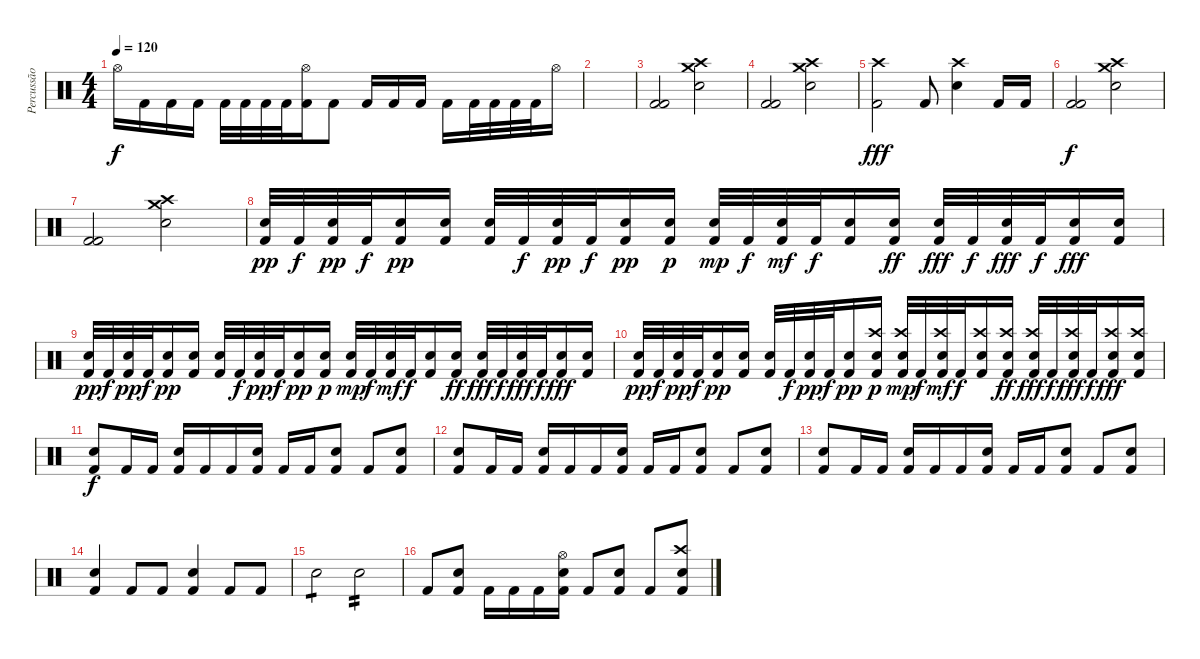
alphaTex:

\track ("Percussão" "Percussão") {instrument percussion}
\staff {score}
\articulation defaults
\ts (4 4)
\tempo 120
\clef neutral
\ks c "Hi-Hat (open)".16{dy f} "Kick (hit) 2".16 "Kick (hit) 2".16 "Kick (hit) 2".16 "Kick (hit) 2".32 "Kick (hit) 2".32 "Kick (hit) 2".32 "Kick (hit) 2".32
("Kick (hit) 2" "Hi-Hat (open)").16 "Kick (hit) 2".8 "Kick (hit) 2".16 "Kick (hit) 2".16 "Kick (hit) 2".16 "Kick (hit) 2".16 "Kick (hit) 2".32 "Kick (hit) 2".32 "Kick (hit) 2".32 "Kick (hit) 2".32 "Hi-Hat (open)".16 |
|
("Kick (hit) 2" "Kick (hit) 2").2 ("Crash medium (hit)" "Crash high (hit)" "Snare (hit) 2").2 |
("Kick (hit) 2" "Kick (hit) 2").2 ("Crash medium (hit)" "Crash high (hit)" "Snare (hit) 2").2 |
("Kick (hit) 2" "Crash high (hit)").2{dy fff volume 16} "Kick (hit) 2".8 ("Snare (hit) 2" "Crash high (hit)").4 "Kick (hit) 2".16 "Kick (hit) 2".16 |
("Kick (hit) 2" "Kick (hit) 2").2{dy f} ("Crash medium (hit)" "Crash high (hit)" "Snare (hit) 2").2 |
("Kick (hit) 2" "Kick (hit) 2").2 ("Crash medium (hit)" "Crash high (hit)" "Snare (hit) 2").2 |
("Snare (hit) 2" "Kick (hit) 2").32{dy pp} "Kick (hit) 2".32{dy f} ("Snare (hit) 2" "Kick (hit) 2").32{dy pp} "Kick (hit) 2".32{dy f} ("Snare (hit) 2" "Kick (hit) 2").16{dy pp} ("Snare (hit) 2" "Kick (hit) 2").16 ("Snare (hit) 2" "Kick (hit) 2").32 "Kick (hit) 2".32{dy f} ("Snare (hit) 2" "Kick (hit) 2").32{dy pp} "Kick (hit) 2".32{dy f} ("Snare (hit) 2" "Kick (hit) 2").16{dy pp} ("Snare (hit) 2" "Kick (hit) 2").16{dy p} ("Snare (hit) 2" "Kick (hit) 2").32{dy mp} "Kick (hit) 2".32{dy f} ("Snare (hit) 2" "Kick (hit) 2").32{dy mf} "Kick (hit) 2".32{dy f} ("Snare (hit) 2" "Kick (hit) 2").16 ("Snare (hit) 2" "Kick (hit) 2").16{dy ff} ("Snare (hit) 2" "Kick (hit) 2").32{dy fff} "Kick (hit) 2".32{dy f} ("Snare (hit) 2" "Kick (hit) 2").32{dy fff} "Kick (hit) 2".32{dy f} ("Snare (hit) 2" "Kick (hit) 2").16{dy fff} ("Snare (hit) 2" "Kick (hit) 2").16 |
("Snare (hit) 2" "Kick (hit) 2").32{dy pp} "Kick (hit) 2".32{dy f} ("Snare (hit) 2" "Kick (hit) 2").32{dy pp} "Kick (hit) 2".32{dy f} ("Snare (hit) 2" "Kick (hit) 2").16{dy pp} ("Snare (hit) 2" "Kick (hit) 2").16 ("Snare (hit) 2" "Kick (hit) 2").32 "Kick (hit) 2".32{dy f} ("Snare (hit) 2" "Kick (hit) 2").32{dy pp} "Kick (hit) 2".32{dy f} ("Snare (hit) 2" "Kick (hit) 2").16{dy pp} ("Snare (hit) 2" "Kick (hit) 2").16{dy p} ("Snare (hit) 2" "Kick (hit) 2").32{dy mp} "Kick (hit) 2".32{dy f} ("Snare (hit) 2" "Kick (hit) 2").32{dy mf} "Kick (hit) 2".32{dy f} ("Snare (hit) 2" "Kick (hit) 2").16 ("Snare (hit) 2" "Kick (hit) 2").16{dy ff} ("Snare (hit) 2" "Kick (hit) 2").32{dy fff} "Kick (hit) 2".32{dy f} ("Snare (hit) 2" "Kick (hit) 2").32{dy fff} "Kick (hit) 2".32{dy f} ("Snare (hit) 2" "Kick (hit) 2").16{dy fff} ("Snare (hit) 2" "Kick (hit) 2").16 |
("Snare (hit) 2" "Kick (hit) 2").32{dy pp} "Kick (hit) 2".32{dy f} ("Snare (hit) 2" "Kick (hit) 2").32{dy pp} "Kick (hit) 2".32{dy f} ("Snare (hit) 2" "Kick (hit) 2").16{dy pp} ("Snare (hit) 2" "Kick (hit) 2").16 ("Snare (hit) 2" "Kick (hit) 2").32 "Kick (hit) 2".32{dy f} ("Snare (hit) 2" "Kick (hit) 2").32{dy pp} "Kick (hit) 2".32{dy f} ("Snare (hit) 2" "Kick (hit) 2").16{dy pp} ("Crash high (hit)" "Snare (hit) 2" "Kick (hit) 2").16{dy p} ("Crash high (hit)" "Snare (hit) 2" "Kick (hit) 2").32{dy mp} "Kick (hit) 2".32{dy f} ("Crash high (hit)" "Snare (hit) 2" "Kick (hit) 2").32{dy mf} "Kick (hit) 2".32{dy f} ("Crash high (hit)" "Snare (hit) 2" "Kick (hit) 2").16 ("Crash high (hit)" "Snare (hit) 2" "Kick (hit) 2").16{dy ff} ("Crash high (hit)" "Snare (hit) 2" "Kick (hit) 2").32{dy fff} "Kick (hit) 2".32{dy f} ("Crash high (hit)" "Snare (hit) 2" "Kick (hit) 2").32{dy fff} "Kick (hit) 2".32{dy f} ("Crash high (hit)" "Snare (hit) 2" "Kick (hit) 2").16{dy fff} ("Crash high (hit)" "Snare (hit) 2" "Kick (hit) 2").16 |
("Snare (hit) 2" "Kick (hit) 2").8{dy f} "Kick (hit) 2".16 "Kick (hit) 2".16 ("Snare (hit) 2" "Kick (hit) 2").16 "Kick (hit) 2".16 "Kick (hit) 2".16 ("Snare (hit) 2" "Kick (hit) 2").16 "Kick (hit) 2".16 "Kick (hit) 2".16 ("Snare (hit) 2" "Kick (hit) 2").8 "Kick (hit) 2".8 ("Snare (hit) 2" "Kick (hit) 2").8 |
("Snare (hit) 2" "Kick (hit) 2").8 "Kick (hit) 2".16 "Kick (hit) 2".16 ("Snare (hit) 2" "Kick (hit) 2").16 "Kick (hit) 2".16 "Kick (hit) 2".16 ("Snare (hit) 2" "Kick (hit) 2").16 "Kick (hit) 2".16 "Kick (hit) 2".16 ("Snare (hit) 2" "Kick (hit) 2").8 "Kick (hit) 2".8 ("Snare (hit) 2" "Kick (hit) 2").8 |
("Snare (hit) 2" "Kick (hit) 2").8 "Kick (hit) 2".16 "Kick (hit) 2".16 ("Snare (hit) 2" "Kick (hit) 2").16 "Kick (hit) 2".16 "Kick (hit) 2".16 ("Snare (hit) 2" "Kick (hit) 2").16 "Kick (hit) 2".16 "Kick (hit) 2".16 ("Snare (hit) 2" "Kick (hit) 2").8 "Kick (hit) 2".8 ("Snare (hit) 2" "Kick (hit) 2").8 |
("Snare (hit) 2" "Kick (hit) 2").4 "Kick (hit) 2".8 "Kick (hit) 2".8 ("Snare (hit) 2" "Kick (hit) 2").4 "Kick (hit) 2".8 "Kick (hit) 2".8 |
"Snare (hit) 2".2{tp 1} "Snare (hit) 2".2{tp 2} |
"Kick (hit) 2".8 ("Kick (hit) 2" "Snare (hit) 2").8 "Kick (hit) 2".16 "Kick (hit) 2".16 "Kick (hit) 2".16 ("Kick (hit) 2" "Snare (hit) 2" "Hi-Hat (open)").16 "Kick (hit) 2".8 ("Kick (hit) 2" "Snare (hit) 2").8 "Kick (hit) 2".8 ("Kick (hit) 2" "Snare (hit) 2" "Crash high (hit)").8
